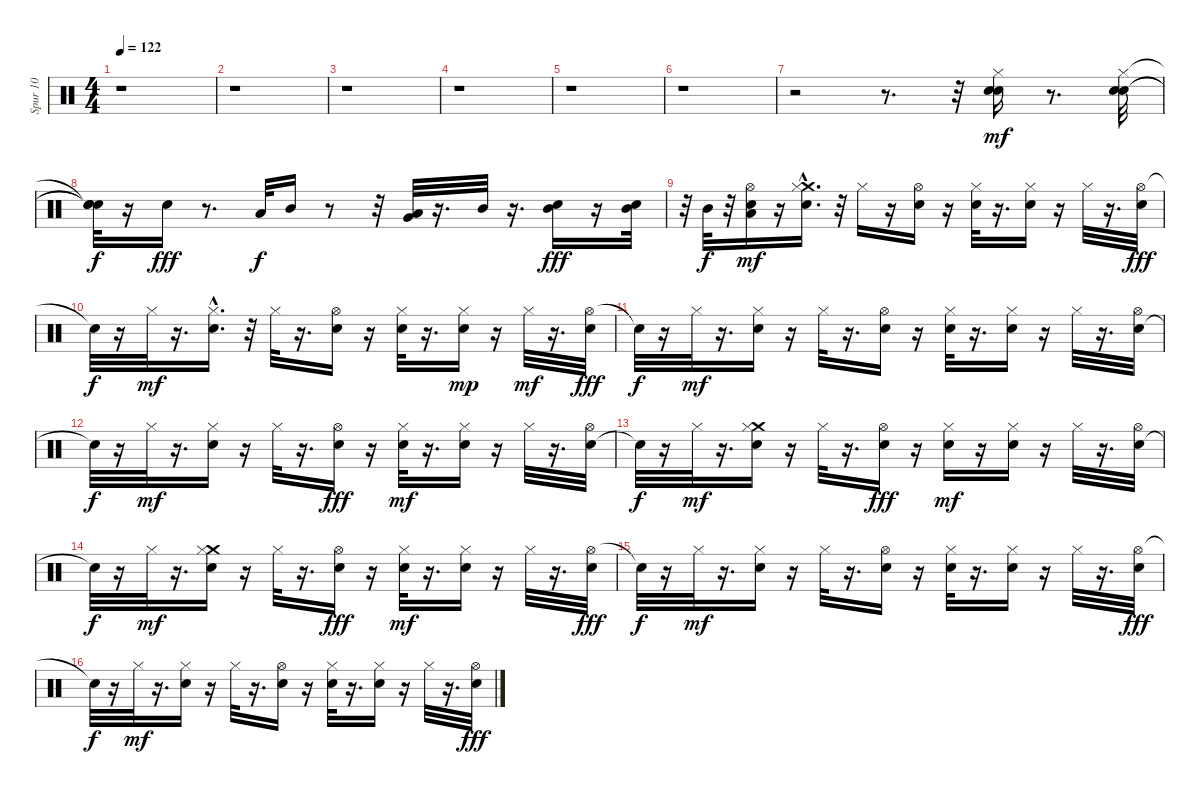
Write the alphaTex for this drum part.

\track ("Spur 10" "Spur 10") {instrument percussion}
\staff {score}
\articulation defaults
\ts (4 4)
\tempo 122
\clef neutral
\ks c
r.1{dy mf} |
r.1 |
r.1 |
r.1 |
r.1 |
r.1 |
r.2 r.8{d} r.32 ("Snare (hit) 2" "Snare (hit) 2" "Hi-Hat (closed)").16 r.8{d} ("Snare (hit) 2" "Snare (hit) 2" "Hi-Hat (closed)").32 |
("Snare (hit)"{t} "Snare (hit)"{t} "Snare (hit)"{t}).32{dy f} r.16 "Snare (hit)".16{dy fff} r.8{d} "Low Tom (hit)".32{dy f} "Mid Tom (hit)".16 r.8 r.32 ("Very Low Tom (hit)" "Low Tom (hit)").32 r.16{d} "Mid Tom (hit)".32 r.16{d} ("Snare (hit)" "Mid Tom (hit)").16{dy fff} r.16 ("Snare (hit)" "Mid Tom (hit)").32 |
r.32 "Mid Tom (hit)".32{dy f} r.32 ("Low Tom (hit)" "Snare (hit)" "Hi-Hat (open)").16{dy mf} r.16 ("Crash medium (hit)" "Snare (hit)"{hac} "Hi-Hat (closed)").16{d} r.32 "Hi-Hat (closed)".16 r.16 ("Snare (hit) 2" "Hi-Hat (open)").16 r.16 ("Snare (hit)" "Hi-Hat (closed)").32 r.16{d} ("Snare (hit)" "Hi-Hat (closed)").16 r.16 "Hi-Hat (closed)".32 r.16{d} ("Hi-Hat (open)" "Snare (hit) 2").32{dy fff} |
"Snare (hit)"{t}.32{dy f} r.16 "Hi-Hat (closed)".32{dy mf} r.16{d} ("Snare (hit)"{hac} "Hi-Hat (closed)").16{d} r.32 "Hi-Hat (closed)".32 r.16{d} ("Snare (hit) 2" "Hi-Hat (open)").16 r.16 ("Snare (hit)" "Hi-Hat (closed)").32 r.16{d} ("Snare (hit)" "Hi-Hat (closed)").16{dy mp} r.16 "Hi-Hat (closed)".32{dy mf} r.16{d} ("Hi-Hat (open)" "Snare (hit) 2").32{dy fff} |
"Snare (hit)"{t}.32{dy f} r.16 "Hi-Hat (closed)".32{dy mf} r.16{d} ("Snare (hit)" "Hi-Hat (closed)").16 r.16 "Hi-Hat (closed)".32 r.16{d} ("Snare (hit) 2" "Hi-Hat (open)").16 r.16 ("Snare (hit)" "Hi-Hat (closed)").32 r.16{d} ("Snare (hit)" "Hi-Hat (closed)").16 r.16 "Hi-Hat (closed)".32 r.16{d} ("Snare (hit) 2" "Hi-Hat (open)").32 |
"Snare (hit)"{t}.32{dy f} r.16 "Hi-Hat (closed)".32{dy mf} r.16{d} ("Snare (hit)" "Hi-Hat (closed)").16 r.16 "Hi-Hat (closed)".32 r.16{d} ("Hi-Hat (open)" "Snare (hit) 2").16{dy fff} r.16 ("Snare (hit)" "Hi-Hat (closed)").32{dy mf} r.16{d} ("Snare (hit)" "Hi-Hat (closed)").16 r.16 "Hi-Hat (closed)".32 r.16{d} ("Snare (hit) 2" "Hi-Hat (open)").32 |
"Snare (hit)"{t}.32{dy f} r.16 "Hi-Hat (closed)".32{dy mf} r.16{d} ("Snare (hit)" "Crash medium (hit)" "Hi-Hat (closed)").16 r.16 "Hi-Hat (closed)".32 r.16{d} ("Hi-Hat (open)" "Snare (hit) 2").16{dy fff} r.16 ("Snare (hit)" "Hi-Hat (closed)").16{dy mf} r.16 ("Snare (hit)" "Hi-Hat (closed)").16 r.16 "Hi-Hat (closed)".32 r.16{d} ("Snare (hit) 2" "Hi-Hat (open)").32 |
"Snare (hit)"{t}.32{dy f} r.16 "Hi-Hat (closed)".32{dy mf} r.16{d} ("Crash medium (hit)" "Snare (hit)" "Hi-Hat (closed)").16 r.16 "Hi-Hat (closed)".32 r.16{d} ("Hi-Hat (open)" "Snare (hit) 2").16{dy fff} r.16 ("Snare (hit)" "Hi-Hat (closed)").32{dy mf} r.16{d} ("Snare (hit)" "Hi-Hat (closed)").16 r.16 "Hi-Hat (closed)".32 r.16{d} ("Hi-Hat (open)" "Snare (hit) 2").32{dy fff} |
"Snare (hit)"{t}.32{dy f} r.16 "Hi-Hat (closed)".32{dy mf} r.16{d} ("Snare (hit)" "Hi-Hat (closed)").16 r.16 "Hi-Hat (closed)".32 r.16{d} ("Snare (hit) 2" "Hi-Hat (open)").16 r.16 ("Snare (hit)" "Hi-Hat (closed)").32 r.16{d} ("Snare (hit)" "Hi-Hat (closed)").16 r.16 "Hi-Hat (closed)".32 r.16{d} ("Hi-Hat (open)" "Snare (hit) 2").32{dy fff} |
"Snare (hit)"{t}.32{dy f} r.16 "Hi-Hat (closed)".32{dy mf} r.16{d} ("Snare (hit)" "Hi-Hat (closed)").16 r.16 "Hi-Hat (closed)".32 r.16{d} ("Snare (hit) 2" "Hi-Hat (open)").16 r.16 ("Snare (hit)" "Hi-Hat (closed)").32 r.16{d} ("Snare (hit)" "Hi-Hat (closed)").16 r.16 "Hi-Hat (closed)".32 r.16{d} ("Hi-Hat (open)" "Snare (hit) 2").32{dy fff}
